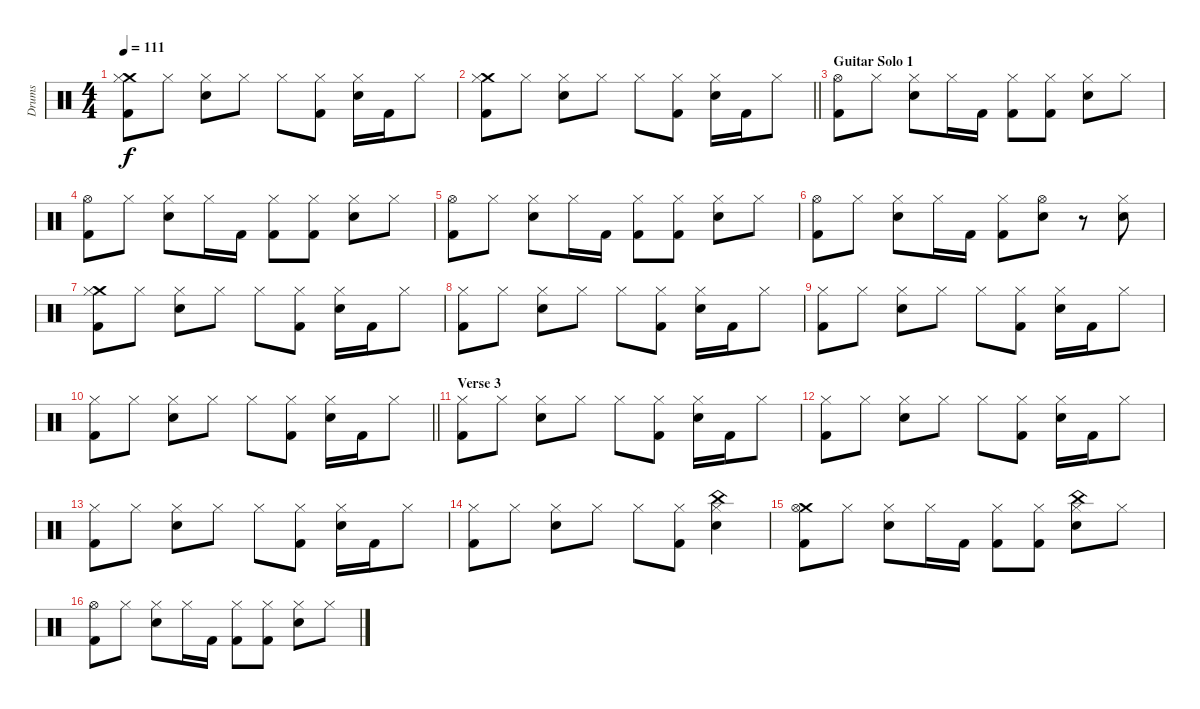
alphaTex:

\track ("Drums" "Drums") {instrument percussion}
\staff {score}
\articulation defaults
\ts (4 4)
\tempo 111
\clef neutral
\ks c
("Crash medium (hit)" "Hi-Hat (closed)" "Kick (hit) 2").8{dy f} "Hi-Hat (closed)".8 ("Hi-Hat (closed)" "Snare (hit) 2").8 "Hi-Hat (closed)".8 "Hi-Hat (closed)".8 ("Hi-Hat (closed)" "Kick (hit) 2").8 ("Hi-Hat (closed)" "Snare (hit) 2").16 "Kick (hit) 2".16 "Hi-Hat (closed)".8 |
\barLineRight lightlight
("Crash medium (hit)" "Hi-Hat (closed)" "Kick (hit) 2").8 "Hi-Hat (closed)".8 ("Hi-Hat (closed)" "Snare (hit) 2").8 "Hi-Hat (closed)".8 "Hi-Hat (closed)".8 ("Hi-Hat (closed)" "Kick (hit) 2").8 ("Hi-Hat (closed)" "Snare (hit) 2").16 "Kick (hit) 2".16 "Hi-Hat (closed)".8 |
\section ("" "Guitar Solo 1")
("Hi-Hat (open)" "Kick (hit) 2").8 "Hi-Hat (closed)".8 ("Hi-Hat (closed)" "Snare (hit) 2").8 "Hi-Hat (closed)".16 "Kick (hit) 2".16 ("Hi-Hat (closed)" "Kick (hit) 2").8 ("Hi-Hat (closed)" "Kick (hit) 2").8 ("Hi-Hat (closed)" "Snare (hit) 2").8 "Hi-Hat (closed)".8 |
("Hi-Hat (open)" "Kick (hit) 2").8 "Hi-Hat (closed)".8 ("Hi-Hat (closed)" "Snare (hit) 2").8 "Hi-Hat (closed)".16 "Kick (hit) 2".16 ("Hi-Hat (closed)" "Kick (hit) 2").8 ("Hi-Hat (closed)" "Kick (hit) 2").8 ("Hi-Hat (closed)" "Snare (hit) 2").8 "Hi-Hat (closed)".8 |
("Hi-Hat (open)" "Kick (hit) 2").8 "Hi-Hat (closed)".8 ("Hi-Hat (closed)" "Snare (hit) 2").8 "Hi-Hat (closed)".16 "Kick (hit) 2".16 ("Hi-Hat (closed)" "Kick (hit) 2").8 ("Hi-Hat (closed)" "Kick (hit) 2").8 ("Hi-Hat (closed)" "Snare (hit) 2").8 "Hi-Hat (closed)".8 |
("Hi-Hat (open)" "Kick (hit) 2").8 "Hi-Hat (closed)".8 ("Hi-Hat (closed)" "Snare (hit) 2").8 "Hi-Hat (closed)".16 "Kick (hit) 2".16 ("Hi-Hat (closed)" "Kick (hit) 2").8 ("Hi-Hat (open)" "Snare (hit) 2").8 r.8 ("Snare (hit) 2" "Hi-Hat (closed)").8 |
("Crash medium (hit)" "Hi-Hat (closed)" "Kick (hit) 2").8 "Hi-Hat (closed)".8 ("Hi-Hat (closed)" "Snare (hit) 2").8 "Hi-Hat (closed)".8 "Hi-Hat (closed)".8 ("Hi-Hat (closed)" "Kick (hit) 2").8 ("Hi-Hat (closed)" "Snare (hit) 2").16 "Kick (hit) 2".16 "Hi-Hat (closed)".8 |
("Hi-Hat (closed)" "Kick (hit) 2").8 "Hi-Hat (closed)".8 ("Hi-Hat (closed)" "Snare (hit) 2").8 "Hi-Hat (closed)".8 "Hi-Hat (closed)".8 ("Hi-Hat (closed)" "Kick (hit) 2").8 ("Hi-Hat (closed)" "Snare (hit) 2").16 "Kick (hit) 2".16 "Hi-Hat (closed)".8 |
("Hi-Hat (closed)" "Kick (hit) 2").8 "Hi-Hat (closed)".8 ("Hi-Hat (closed)" "Snare (hit) 2").8 "Hi-Hat (closed)".8 "Hi-Hat (closed)".8 ("Hi-Hat (closed)" "Kick (hit) 2").8 ("Hi-Hat (closed)" "Snare (hit) 2").16 "Kick (hit) 2".16 "Hi-Hat (closed)".8 |
\barLineRight lightlight
("Hi-Hat (closed)" "Kick (hit) 2").8 "Hi-Hat (closed)".8 ("Hi-Hat (closed)" "Snare (hit) 2").8 "Hi-Hat (closed)".8 "Hi-Hat (closed)".8 ("Hi-Hat (closed)" "Kick (hit) 2").8 ("Hi-Hat (closed)" "Snare (hit) 2").16 "Kick (hit) 2".16 "Hi-Hat (closed)".8 |
\section ("" "Verse 3")
("Hi-Hat (closed)" "Kick (hit) 2").8 "Hi-Hat (closed)".8 ("Hi-Hat (closed)" "Snare (hit) 2").8 "Hi-Hat (closed)".8 "Hi-Hat (closed)".8 ("Hi-Hat (closed)" "Kick (hit) 2").8 ("Hi-Hat (closed)" "Snare (hit) 2").16 "Kick (hit) 2".16 "Hi-Hat (closed)".8 |
("Hi-Hat (closed)" "Kick (hit) 2").8 "Hi-Hat (closed)".8 ("Hi-Hat (closed)" "Snare (hit) 2").8 "Hi-Hat (closed)".8 "Hi-Hat (closed)".8 ("Hi-Hat (closed)" "Kick (hit) 2").8 ("Hi-Hat (closed)" "Snare (hit) 2").16 "Kick (hit) 2".16 "Hi-Hat (closed)".8 |
("Hi-Hat (closed)" "Kick (hit) 2").8 "Hi-Hat (closed)".8 ("Hi-Hat (closed)" "Snare (hit) 2").8 "Hi-Hat (closed)".8 "Hi-Hat (closed)".8 ("Hi-Hat (closed)" "Kick (hit) 2").8 ("Hi-Hat (closed)" "Snare (hit) 2").16 "Kick (hit) 2".16 "Hi-Hat (closed)".8 |
("Hi-Hat (closed)" "Kick (hit) 2").8 "Hi-Hat (closed)".8 ("Hi-Hat (closed)" "Snare (hit) 2").8 "Hi-Hat (closed)".8 "Hi-Hat (closed)".8 ("Hi-Hat (closed)" "Kick (hit) 2").8 ("China (hit)" "Hi-Hat (closed)" "Snare (hit) 2").4 |
("Crash medium (hit)" "Hi-Hat (open)" "Kick (hit) 2").8 "Hi-Hat (closed)".8 ("Hi-Hat (closed)" "Snare (hit) 2").8 "Hi-Hat (closed)".16 "Kick (hit) 2".16 ("Hi-Hat (closed)" "Kick (hit) 2").8 ("Hi-Hat (closed)" "Kick (hit) 2").8 ("China (hit)" "Hi-Hat (closed)" "Snare (hit) 2").8 "Hi-Hat (closed)".8 |
("Hi-Hat (open)" "Kick (hit) 2").8 "Hi-Hat (closed)".8 ("Hi-Hat (closed)" "Snare (hit) 2").8 "Hi-Hat (closed)".16 "Kick (hit) 2".16 ("Hi-Hat (closed)" "Kick (hit) 2").8 ("Hi-Hat (closed)" "Kick (hit) 2").8 ("Hi-Hat (closed)" "Snare (hit) 2").8 "Hi-Hat (closed)".8
